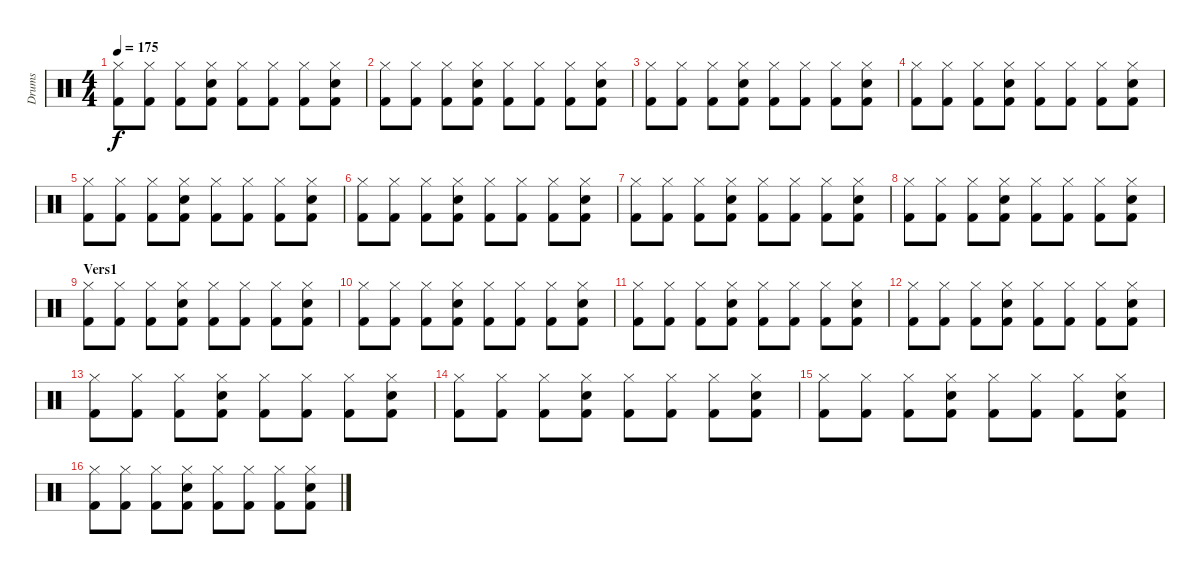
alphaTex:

\track ("Drums" "Drums") {instrument percussion}
\staff {score}
\articulation defaults
\ts (4 4)
\tempo 175
\clef neutral
\ks c
("Kick (hit) 2" "Hi-Hat (closed)").8{dy f} ("Kick (hit) 2" "Hi-Hat (closed)").8 ("Kick (hit) 2" "Hi-Hat (closed)").8 ("Kick (hit) 2" "Hi-Hat (closed)" "Snare (hit) 2").8 ("Kick (hit) 2" "Hi-Hat (closed)").8 ("Kick (hit) 2" "Hi-Hat (closed)").8 ("Kick (hit) 2" "Hi-Hat (closed)").8 ("Kick (hit) 2" "Hi-Hat (closed)" "Snare (hit) 2").8 |
("Kick (hit) 2" "Hi-Hat (closed)").8 ("Kick (hit) 2" "Hi-Hat (closed)").8 ("Kick (hit) 2" "Hi-Hat (closed)").8 ("Kick (hit) 2" "Hi-Hat (closed)" "Snare (hit) 2").8 ("Kick (hit) 2" "Hi-Hat (closed)").8 ("Kick (hit) 2" "Hi-Hat (closed)").8 ("Kick (hit) 2" "Hi-Hat (closed)").8 ("Kick (hit) 2" "Hi-Hat (closed)" "Snare (hit) 2").8 |
("Kick (hit) 2" "Hi-Hat (closed)").8 ("Kick (hit) 2" "Hi-Hat (closed)").8 ("Kick (hit) 2" "Hi-Hat (closed)").8 ("Kick (hit) 2" "Hi-Hat (closed)" "Snare (hit) 2").8 ("Kick (hit) 2" "Hi-Hat (closed)").8 ("Kick (hit) 2" "Hi-Hat (closed)").8 ("Kick (hit) 2" "Hi-Hat (closed)").8 ("Kick (hit) 2" "Hi-Hat (closed)" "Snare (hit) 2").8 |
("Kick (hit) 2" "Hi-Hat (closed)").8 ("Kick (hit) 2" "Hi-Hat (closed)").8 ("Kick (hit) 2" "Hi-Hat (closed)").8 ("Kick (hit) 2" "Hi-Hat (closed)" "Snare (hit) 2").8 ("Kick (hit) 2" "Hi-Hat (closed)").8 ("Kick (hit) 2" "Hi-Hat (closed)").8 ("Kick (hit) 2" "Hi-Hat (closed)").8 ("Kick (hit) 2" "Hi-Hat (closed)" "Snare (hit) 2").8 |
("Kick (hit) 2" "Hi-Hat (closed)").8 ("Kick (hit) 2" "Hi-Hat (closed)").8 ("Kick (hit) 2" "Hi-Hat (closed)").8 ("Kick (hit) 2" "Hi-Hat (closed)" "Snare (hit) 2").8 ("Kick (hit) 2" "Hi-Hat (closed)").8 ("Kick (hit) 2" "Hi-Hat (closed)").8 ("Kick (hit) 2" "Hi-Hat (closed)").8 ("Kick (hit) 2" "Hi-Hat (closed)" "Snare (hit) 2").8 |
("Kick (hit) 2" "Hi-Hat (closed)").8 ("Kick (hit) 2" "Hi-Hat (closed)").8 ("Kick (hit) 2" "Hi-Hat (closed)").8 ("Kick (hit) 2" "Hi-Hat (closed)" "Snare (hit) 2").8 ("Kick (hit) 2" "Hi-Hat (closed)").8 ("Kick (hit) 2" "Hi-Hat (closed)").8 ("Kick (hit) 2" "Hi-Hat (closed)").8 ("Kick (hit) 2" "Hi-Hat (closed)" "Snare (hit) 2").8 |
("Kick (hit) 2" "Hi-Hat (closed)").8 ("Kick (hit) 2" "Hi-Hat (closed)").8 ("Kick (hit) 2" "Hi-Hat (closed)").8 ("Kick (hit) 2" "Hi-Hat (closed)" "Snare (hit) 2").8 ("Kick (hit) 2" "Hi-Hat (closed)").8 ("Kick (hit) 2" "Hi-Hat (closed)").8 ("Kick (hit) 2" "Hi-Hat (closed)").8 ("Kick (hit) 2" "Hi-Hat (closed)" "Snare (hit) 2").8 |
("Kick (hit) 2" "Hi-Hat (closed)").8 ("Kick (hit) 2" "Hi-Hat (closed)").8 ("Kick (hit) 2" "Hi-Hat (closed)").8 ("Kick (hit) 2" "Hi-Hat (closed)" "Snare (hit) 2").8 ("Kick (hit) 2" "Hi-Hat (closed)").8 ("Kick (hit) 2" "Hi-Hat (closed)").8 ("Kick (hit) 2" "Hi-Hat (closed)").8 ("Kick (hit) 2" "Hi-Hat (closed)" "Snare (hit) 2").8 |
\section ("" "Vers1")
("Kick (hit) 2" "Hi-Hat (closed)").8 ("Kick (hit) 2" "Hi-Hat (closed)").8 ("Kick (hit) 2" "Hi-Hat (closed)").8 ("Kick (hit) 2" "Hi-Hat (closed)" "Snare (hit) 2").8 ("Kick (hit) 2" "Hi-Hat (closed)").8 ("Kick (hit) 2" "Hi-Hat (closed)").8 ("Kick (hit) 2" "Hi-Hat (closed)").8 ("Kick (hit) 2" "Hi-Hat (closed)" "Snare (hit) 2").8 |
("Kick (hit) 2" "Hi-Hat (closed)").8 ("Kick (hit) 2" "Hi-Hat (closed)").8 ("Kick (hit) 2" "Hi-Hat (closed)").8 ("Kick (hit) 2" "Hi-Hat (closed)" "Snare (hit) 2").8 ("Kick (hit) 2" "Hi-Hat (closed)").8 ("Kick (hit) 2" "Hi-Hat (closed)").8 ("Kick (hit) 2" "Hi-Hat (closed)").8 ("Kick (hit) 2" "Hi-Hat (closed)" "Snare (hit) 2").8 |
("Kick (hit) 2" "Hi-Hat (closed)").8 ("Kick (hit) 2" "Hi-Hat (closed)").8 ("Kick (hit) 2" "Hi-Hat (closed)").8 ("Kick (hit) 2" "Hi-Hat (closed)" "Snare (hit) 2").8 ("Kick (hit) 2" "Hi-Hat (closed)").8 ("Kick (hit) 2" "Hi-Hat (closed)").8 ("Kick (hit) 2" "Hi-Hat (closed)").8 ("Kick (hit) 2" "Hi-Hat (closed)" "Snare (hit) 2").8 |
("Kick (hit) 2" "Hi-Hat (closed)").8 ("Kick (hit) 2" "Hi-Hat (closed)").8 ("Kick (hit) 2" "Hi-Hat (closed)").8 ("Kick (hit) 2" "Hi-Hat (closed)" "Snare (hit) 2").8 ("Kick (hit) 2" "Hi-Hat (closed)").8 ("Kick (hit) 2" "Hi-Hat (closed)").8 ("Kick (hit) 2" "Hi-Hat (closed)").8 ("Kick (hit) 2" "Hi-Hat (closed)" "Snare (hit) 2").8 |
("Kick (hit) 2" "Hi-Hat (closed)").8 ("Kick (hit) 2" "Hi-Hat (closed)").8 ("Kick (hit) 2" "Hi-Hat (closed)").8 ("Kick (hit) 2" "Hi-Hat (closed)" "Snare (hit) 2").8 ("Kick (hit) 2" "Hi-Hat (closed)").8 ("Kick (hit) 2" "Hi-Hat (closed)").8 ("Kick (hit) 2" "Hi-Hat (closed)").8 ("Kick (hit) 2" "Hi-Hat (closed)" "Snare (hit) 2").8 |
("Kick (hit) 2" "Hi-Hat (closed)").8 ("Kick (hit) 2" "Hi-Hat (closed)").8 ("Kick (hit) 2" "Hi-Hat (closed)").8 ("Kick (hit) 2" "Hi-Hat (closed)" "Snare (hit) 2").8 ("Kick (hit) 2" "Hi-Hat (closed)").8 ("Kick (hit) 2" "Hi-Hat (closed)").8 ("Kick (hit) 2" "Hi-Hat (closed)").8 ("Kick (hit) 2" "Hi-Hat (closed)" "Snare (hit) 2").8 |
("Kick (hit) 2" "Hi-Hat (closed)").8 ("Kick (hit) 2" "Hi-Hat (closed)").8 ("Kick (hit) 2" "Hi-Hat (closed)").8 ("Kick (hit) 2" "Hi-Hat (closed)" "Snare (hit) 2").8 ("Kick (hit) 2" "Hi-Hat (closed)").8 ("Kick (hit) 2" "Hi-Hat (closed)").8 ("Kick (hit) 2" "Hi-Hat (closed)").8 ("Kick (hit) 2" "Hi-Hat (closed)" "Snare (hit) 2").8 |
("Kick (hit) 2" "Hi-Hat (closed)").8 ("Kick (hit) 2" "Hi-Hat (closed)").8 ("Kick (hit) 2" "Hi-Hat (closed)").8 ("Kick (hit) 2" "Hi-Hat (closed)" "Snare (hit) 2").8 ("Kick (hit) 2" "Hi-Hat (closed)").8 ("Kick (hit) 2" "Hi-Hat (closed)").8 ("Kick (hit) 2" "Hi-Hat (closed)").8 ("Kick (hit) 2" "Hi-Hat (closed)" "Snare (hit) 2").8
